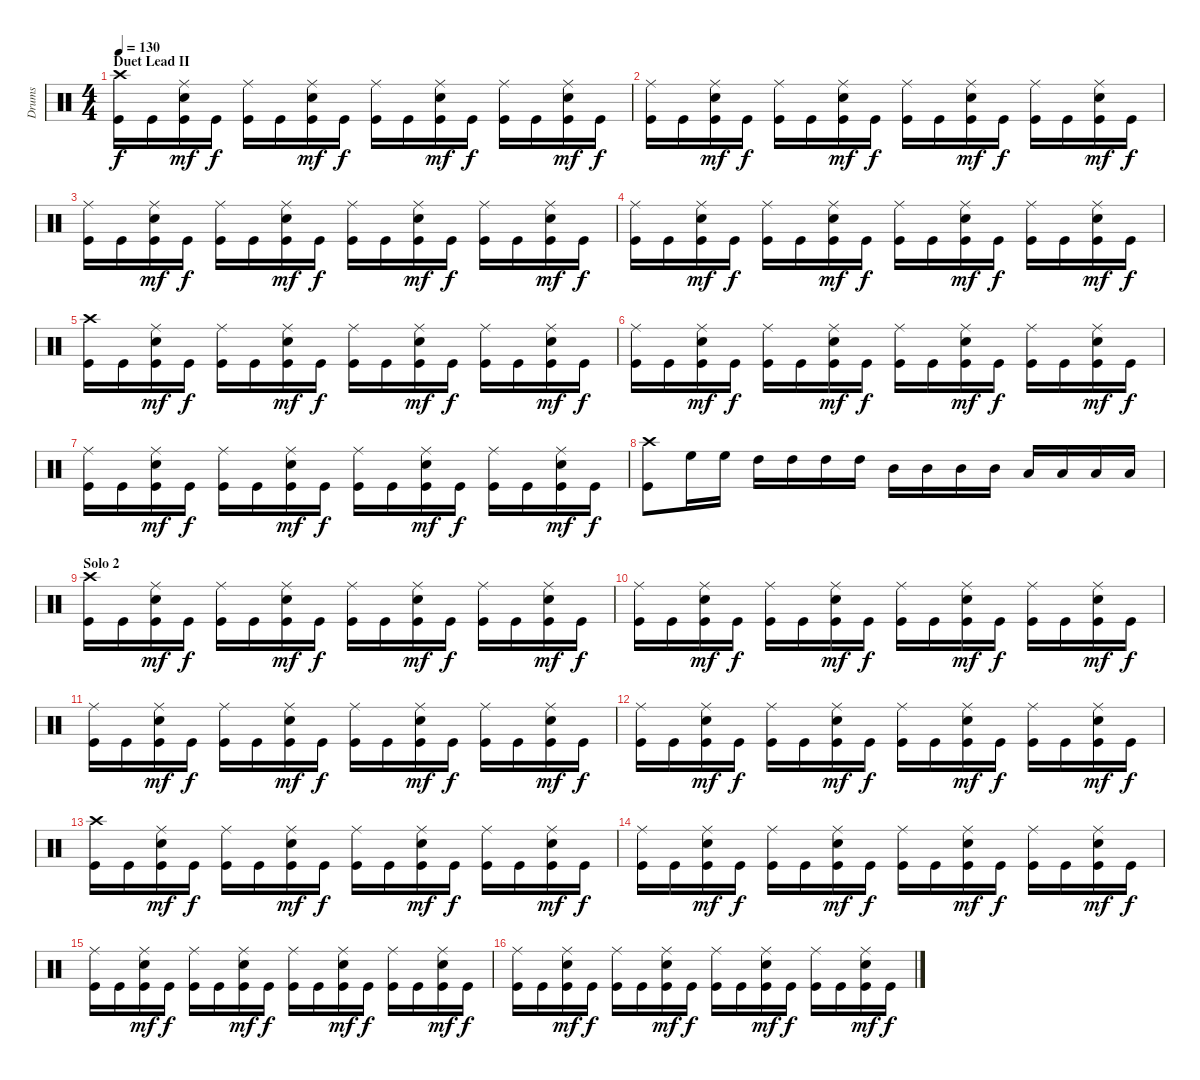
\track ("Drums" "Drums") {instrument percussion}
\staff {score}
\articulation defaults
\ts (4 4)
\section ("" "Duet Lead II")
\tempo 130
\clef neutral
\ks c
("Crash high (hit)" "Kick (hit)").16{dy f} "Kick (hit)".16 ("Ride (middle)" "Snare (hit) 2" "Kick (hit)").16{dy mf} "Kick (hit)".16{dy f} ("Ride (middle)" "Kick (hit)").16 "Kick (hit)".16 ("Ride (middle)" "Snare (hit) 2" "Kick (hit)").16{dy mf} "Kick (hit)".16{dy f} ("Ride (middle)" "Kick (hit)").16 "Kick (hit)".16 ("Ride (middle)" "Snare (hit) 2" "Kick (hit)").16{dy mf} "Kick (hit)".16{dy f} ("Ride (middle)" "Kick (hit)").16 "Kick (hit)".16 ("Ride (middle)" "Snare (hit) 2" "Kick (hit)").16{dy mf} "Kick (hit)".16{dy f} |
("Ride (middle)" "Kick (hit)").16 "Kick (hit)".16 ("Ride (middle)" "Snare (hit) 2" "Kick (hit)").16{dy mf} "Kick (hit)".16{dy f} ("Ride (middle)" "Kick (hit)").16 "Kick (hit)".16 ("Ride (middle)" "Snare (hit) 2" "Kick (hit)").16{dy mf} "Kick (hit)".16{dy f} ("Ride (middle)" "Kick (hit)").16 "Kick (hit)".16 ("Ride (middle)" "Snare (hit) 2" "Kick (hit)").16{dy mf} "Kick (hit)".16{dy f} ("Ride (middle)" "Kick (hit)").16 "Kick (hit)".16 ("Ride (middle)" "Snare (hit) 2" "Kick (hit)").16{dy mf} "Kick (hit)".16{dy f} |
("Ride (middle)" "Kick (hit)").16 "Kick (hit)".16 ("Ride (middle)" "Snare (hit) 2" "Kick (hit)").16{dy mf} "Kick (hit)".16{dy f} ("Ride (middle)" "Kick (hit)").16 "Kick (hit)".16 ("Ride (middle)" "Snare (hit) 2" "Kick (hit)").16{dy mf} "Kick (hit)".16{dy f} ("Ride (middle)" "Kick (hit)").16 "Kick (hit)".16 ("Ride (middle)" "Snare (hit) 2" "Kick (hit)").16{dy mf} "Kick (hit)".16{dy f} ("Ride (middle)" "Kick (hit)").16 "Kick (hit)".16 ("Ride (middle)" "Snare (hit) 2" "Kick (hit)").16{dy mf} "Kick (hit)".16{dy f} |
("Ride (middle)" "Kick (hit)").16 "Kick (hit)".16 ("Ride (middle)" "Snare (hit) 2" "Kick (hit)").16{dy mf} "Kick (hit)".16{dy f} ("Ride (middle)" "Kick (hit)").16 "Kick (hit)".16 ("Ride (middle)" "Snare (hit) 2" "Kick (hit)").16{dy mf} "Kick (hit)".16{dy f} ("Ride (middle)" "Kick (hit)").16 "Kick (hit)".16 ("Ride (middle)" "Snare (hit) 2" "Kick (hit)").16{dy mf} "Kick (hit)".16{dy f} ("Ride (middle)" "Kick (hit)").16 "Kick (hit)".16 ("Ride (middle)" "Snare (hit) 2" "Kick (hit)").16{dy mf} "Kick (hit)".16{dy f} |
("Crash high (hit)" "Kick (hit)").16 "Kick (hit)".16 ("Ride (middle)" "Snare (hit) 2" "Kick (hit)").16{dy mf} "Kick (hit)".16{dy f} ("Ride (middle)" "Kick (hit)").16 "Kick (hit)".16 ("Ride (middle)" "Snare (hit) 2" "Kick (hit)").16{dy mf} "Kick (hit)".16{dy f} ("Ride (middle)" "Kick (hit)").16 "Kick (hit)".16 ("Ride (middle)" "Snare (hit) 2" "Kick (hit)").16{dy mf} "Kick (hit)".16{dy f} ("Ride (middle)" "Kick (hit)").16 "Kick (hit)".16 ("Ride (middle)" "Snare (hit) 2" "Kick (hit)").16{dy mf} "Kick (hit)".16{dy f} |
("Ride (middle)" "Kick (hit)").16 "Kick (hit)".16 ("Ride (middle)" "Snare (hit) 2" "Kick (hit)").16{dy mf} "Kick (hit)".16{dy f} ("Ride (middle)" "Kick (hit)").16 "Kick (hit)".16 ("Ride (middle)" "Snare (hit) 2" "Kick (hit)").16{dy mf} "Kick (hit)".16{dy f} ("Ride (middle)" "Kick (hit)").16 "Kick (hit)".16 ("Ride (middle)" "Snare (hit) 2" "Kick (hit)").16{dy mf} "Kick (hit)".16{dy f} ("Ride (middle)" "Kick (hit)").16 "Kick (hit)".16 ("Ride (middle)" "Snare (hit) 2" "Kick (hit)").16{dy mf} "Kick (hit)".16{dy f} |
("Ride (middle)" "Kick (hit)").16 "Kick (hit)".16 ("Ride (middle)" "Snare (hit) 2" "Kick (hit)").16{dy mf} "Kick (hit)".16{dy f} ("Ride (middle)" "Kick (hit)").16 "Kick (hit)".16 ("Ride (middle)" "Snare (hit) 2" "Kick (hit)").16{dy mf} "Kick (hit)".16{dy f} ("Ride (middle)" "Kick (hit)").16 "Kick (hit)".16 ("Ride (middle)" "Snare (hit) 2" "Kick (hit)").16{dy mf} "Kick (hit)".16{dy f} ("Ride (middle)" "Kick (hit)").16 "Kick (hit)".16 ("Ride (middle)" "Snare (hit) 2" "Kick (hit)").16{dy mf} "Kick (hit)".16{dy f} |
("Crash high (hit)" "Kick (hit)").8 "High Floor Tom (hit)".16 "High Floor Tom (hit)".16 "High Tom (hit)".16 "High Tom (hit)".16 "High Tom (hit)".16 "High Tom (hit)".16 "Mid Tom (hit)".16 "Mid Tom (hit)".16 "Mid Tom (hit)".16 "Mid Tom (hit)".16 "Low Tom (hit)".16 "Low Tom (hit)".16 "Low Tom (hit)".16 "Low Tom (hit)".16 |
\section ("" "Solo 2")
("Crash high (hit)" "Kick (hit)").16 "Kick (hit)".16 ("Ride (middle)" "Snare (hit) 2" "Kick (hit)").16{dy mf} "Kick (hit)".16{dy f} ("Ride (middle)" "Kick (hit)").16 "Kick (hit)".16 ("Ride (middle)" "Snare (hit) 2" "Kick (hit)").16{dy mf} "Kick (hit)".16{dy f} ("Ride (middle)" "Kick (hit)").16 "Kick (hit)".16 ("Ride (middle)" "Snare (hit) 2" "Kick (hit)").16{dy mf} "Kick (hit)".16{dy f} ("Ride (middle)" "Kick (hit)").16 "Kick (hit)".16 ("Ride (middle)" "Snare (hit) 2" "Kick (hit)").16{dy mf} "Kick (hit)".16{dy f} |
("Ride (middle)" "Kick (hit)").16 "Kick (hit)".16 ("Ride (middle)" "Snare (hit) 2" "Kick (hit)").16{dy mf} "Kick (hit)".16{dy f} ("Ride (middle)" "Kick (hit)").16 "Kick (hit)".16 ("Ride (middle)" "Snare (hit) 2" "Kick (hit)").16{dy mf} "Kick (hit)".16{dy f} ("Ride (middle)" "Kick (hit)").16 "Kick (hit)".16 ("Ride (middle)" "Snare (hit) 2" "Kick (hit)").16{dy mf} "Kick (hit)".16{dy f} ("Ride (middle)" "Kick (hit)").16 "Kick (hit)".16 ("Ride (middle)" "Snare (hit) 2" "Kick (hit)").16{dy mf} "Kick (hit)".16{dy f} |
("Ride (middle)" "Kick (hit)").16 "Kick (hit)".16 ("Ride (middle)" "Snare (hit) 2" "Kick (hit)").16{dy mf} "Kick (hit)".16{dy f} ("Ride (middle)" "Kick (hit)").16 "Kick (hit)".16 ("Ride (middle)" "Snare (hit) 2" "Kick (hit)").16{dy mf} "Kick (hit)".16{dy f} ("Ride (middle)" "Kick (hit)").16 "Kick (hit)".16 ("Ride (middle)" "Snare (hit) 2" "Kick (hit)").16{dy mf} "Kick (hit)".16{dy f} ("Ride (middle)" "Kick (hit)").16 "Kick (hit)".16 ("Ride (middle)" "Snare (hit) 2" "Kick (hit)").16{dy mf} "Kick (hit)".16{dy f} |
("Ride (middle)" "Kick (hit)").16 "Kick (hit)".16 ("Ride (middle)" "Snare (hit) 2" "Kick (hit)").16{dy mf} "Kick (hit)".16{dy f} ("Ride (middle)" "Kick (hit)").16 "Kick (hit)".16 ("Ride (middle)" "Snare (hit) 2" "Kick (hit)").16{dy mf} "Kick (hit)".16{dy f} ("Ride (middle)" "Kick (hit)").16 "Kick (hit)".16 ("Ride (middle)" "Snare (hit) 2" "Kick (hit)").16{dy mf} "Kick (hit)".16{dy f} ("Ride (middle)" "Kick (hit)").16 "Kick (hit)".16 ("Ride (middle)" "Snare (hit) 2" "Kick (hit)").16{dy mf} "Kick (hit)".16{dy f} |
("Crash high (hit)" "Kick (hit)").16 "Kick (hit)".16 ("Ride (middle)" "Snare (hit) 2" "Kick (hit)").16{dy mf} "Kick (hit)".16{dy f} ("Ride (middle)" "Kick (hit)").16 "Kick (hit)".16 ("Ride (middle)" "Snare (hit) 2" "Kick (hit)").16{dy mf} "Kick (hit)".16{dy f} ("Ride (middle)" "Kick (hit)").16 "Kick (hit)".16 ("Ride (middle)" "Snare (hit) 2" "Kick (hit)").16{dy mf} "Kick (hit)".16{dy f} ("Ride (middle)" "Kick (hit)").16 "Kick (hit)".16 ("Ride (middle)" "Snare (hit) 2" "Kick (hit)").16{dy mf} "Kick (hit)".16{dy f} |
("Ride (middle)" "Kick (hit)").16 "Kick (hit)".16 ("Ride (middle)" "Snare (hit) 2" "Kick (hit)").16{dy mf} "Kick (hit)".16{dy f} ("Ride (middle)" "Kick (hit)").16 "Kick (hit)".16 ("Ride (middle)" "Snare (hit) 2" "Kick (hit)").16{dy mf} "Kick (hit)".16{dy f} ("Ride (middle)" "Kick (hit)").16 "Kick (hit)".16 ("Ride (middle)" "Snare (hit) 2" "Kick (hit)").16{dy mf} "Kick (hit)".16{dy f} ("Ride (middle)" "Kick (hit)").16 "Kick (hit)".16 ("Ride (middle)" "Snare (hit) 2" "Kick (hit)").16{dy mf} "Kick (hit)".16{dy f} |
("Ride (middle)" "Kick (hit)").16 "Kick (hit)".16 ("Ride (middle)" "Snare (hit) 2" "Kick (hit)").16{dy mf} "Kick (hit)".16{dy f} ("Ride (middle)" "Kick (hit)").16 "Kick (hit)".16 ("Ride (middle)" "Snare (hit) 2" "Kick (hit)").16{dy mf} "Kick (hit)".16{dy f} ("Ride (middle)" "Kick (hit)").16 "Kick (hit)".16 ("Ride (middle)" "Snare (hit) 2" "Kick (hit)").16{dy mf} "Kick (hit)".16{dy f} ("Ride (middle)" "Kick (hit)").16 "Kick (hit)".16 ("Ride (middle)" "Snare (hit) 2" "Kick (hit)").16{dy mf} "Kick (hit)".16{dy f} |
("Ride (middle)" "Kick (hit)").16 "Kick (hit)".16 ("Ride (middle)" "Snare (hit) 2" "Kick (hit)").16{dy mf} "Kick (hit)".16{dy f} ("Ride (middle)" "Kick (hit)").16 "Kick (hit)".16 ("Ride (middle)" "Snare (hit) 2" "Kick (hit)").16{dy mf} "Kick (hit)".16{dy f} ("Ride (middle)" "Kick (hit)").16 "Kick (hit)".16 ("Ride (middle)" "Snare (hit) 2" "Kick (hit)").16{dy mf} "Kick (hit)".16{dy f} ("Ride (middle)" "Kick (hit)").16 "Kick (hit)".16 ("Ride (middle)" "Snare (hit) 2" "Kick (hit)").16{dy mf} "Kick (hit)".16{dy f}
